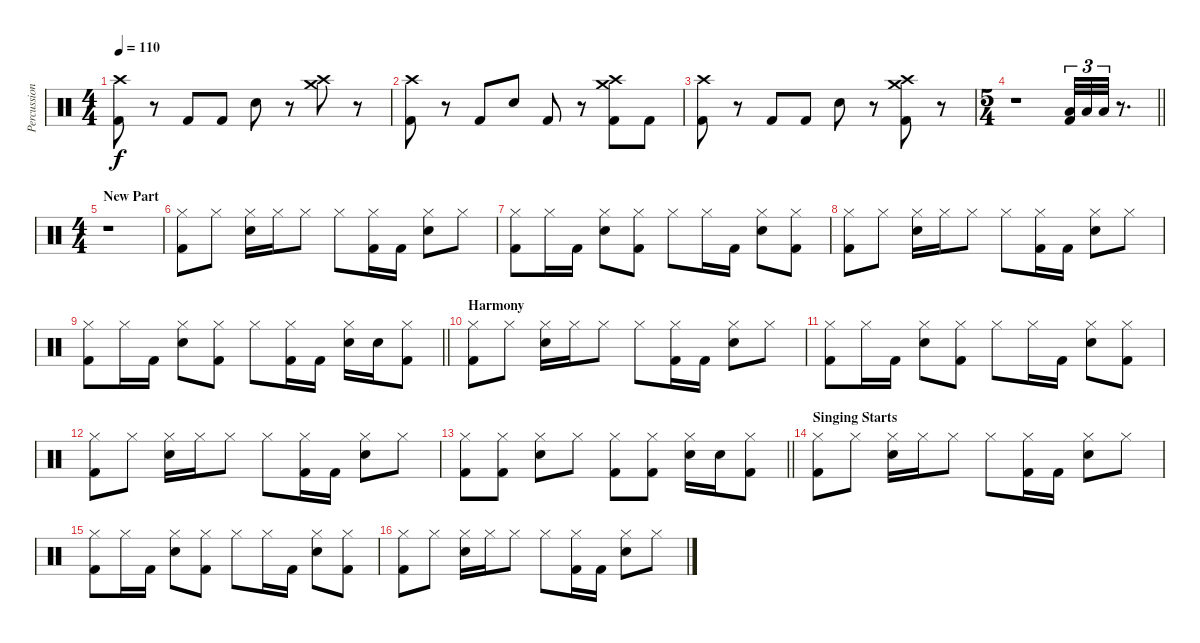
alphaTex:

\track ("Percussion" "Percussion") {instrument percussion}
\staff {score}
\articulation defaults
\ts (4 4)
\tempo 110
\clef neutral
\ks c
("Kick (hit) 2" "Crash high (hit)").8{dy f} r.8 "Kick (hit) 2".8 "Kick (hit) 2".8 "Electric Snare (hit)".8 r.8 ("Crash medium (hit)" "Crash high (hit)").8 r.8 |
("Kick (hit) 2" "Crash high (hit)").8 r.8 "Kick (hit) 2".8 "Electric Snare (hit)".8 "Kick (hit) 2".8 r.8 ("Kick (hit) 2" "Crash medium (hit)" "Crash high (hit)").8 "Kick (hit) 2".8 |
("Kick (hit) 2" "Crash high (hit)").8 r.8 "Kick (hit) 2".8 "Kick (hit) 2".8 "Electric Snare (hit)".8 r.8 ("Kick (hit) 2" "Crash medium (hit)" "Crash high (hit)").8 r.8 |
\ts (5 4)
\barLineRight lightlight
r.1 ("Kick (hit) 2" "Low Floor Tom (hit)").32{tu (3 2)} "Low Floor Tom (hit)".32{tu (3 2)} "Low Floor Tom (hit)".32{tu (3 2)} r.8{d} |
\ts (4 4)
\section ("" "New Part")
r.1 |
("Kick (hit) 2" "Hi-Hat (closed)").8 "Hi-Hat (closed)".8 ("Electric Snare (hit)" "Hi-Hat (closed)").16 "Hi-Hat (closed)".16 "Hi-Hat (closed)".8 "Hi-Hat (closed)".8 ("Kick (hit) 2" "Hi-Hat (closed)").16 "Kick (hit) 2".16 ("Electric Snare (hit)" "Hi-Hat (closed)").8 "Hi-Hat (closed)".8 |
("Kick (hit) 2" "Hi-Hat (closed)").8 "Hi-Hat (closed)".16 "Kick (hit) 2".16 ("Electric Snare (hit)" "Hi-Hat (closed)").8 ("Kick (hit) 2" "Hi-Hat (closed)").8 "Hi-Hat (closed)".8 "Hi-Hat (closed)".16 "Kick (hit) 2".16 ("Electric Snare (hit)" "Hi-Hat (closed)").8 ("Kick (hit) 2" "Hi-Hat (closed)").8 |
("Kick (hit) 2" "Hi-Hat (closed)").8 "Hi-Hat (closed)".8 ("Electric Snare (hit)" "Hi-Hat (closed)").16 "Hi-Hat (closed)".16 "Hi-Hat (closed)".8 "Hi-Hat (closed)".8 ("Kick (hit) 2" "Hi-Hat (closed)").16 "Kick (hit) 2".16 ("Electric Snare (hit)" "Hi-Hat (closed)").8 "Hi-Hat (closed)".8 |
\barLineRight lightlight
("Kick (hit) 2" "Hi-Hat (closed)").8 "Hi-Hat (closed)".16 "Kick (hit) 2".16 ("Electric Snare (hit)" "Hi-Hat (closed)").8 ("Kick (hit) 2" "Hi-Hat (closed)").8 "Hi-Hat (closed)".8 ("Kick (hit) 2" "Hi-Hat (closed)").16 "Kick (hit) 2".16 ("Electric Snare (hit)" "Hi-Hat (closed)").16 "Electric Snare (hit)".16 ("Kick (hit) 2" "Hi-Hat (closed)").8 |
\section ("" "Harmony")
("Kick (hit) 2" "Hi-Hat (closed)").8 "Hi-Hat (closed)".8 ("Electric Snare (hit)" "Hi-Hat (closed)").16 "Hi-Hat (closed)".16 "Hi-Hat (closed)".8 "Hi-Hat (closed)".8 ("Kick (hit) 2" "Hi-Hat (closed)").16 "Kick (hit) 2".16 ("Electric Snare (hit)" "Hi-Hat (closed)").8 "Hi-Hat (closed)".8 |
("Kick (hit) 2" "Hi-Hat (closed)").8 "Hi-Hat (closed)".16 "Kick (hit) 2".16 ("Electric Snare (hit)" "Hi-Hat (closed)").8 ("Kick (hit) 2" "Hi-Hat (closed)").8 "Hi-Hat (closed)".8 "Hi-Hat (closed)".16 "Kick (hit) 2".16 ("Electric Snare (hit)" "Hi-Hat (closed)").8 ("Kick (hit) 2" "Hi-Hat (closed)").8 |
("Kick (hit) 2" "Hi-Hat (closed)").8 "Hi-Hat (closed)".8 ("Electric Snare (hit)" "Hi-Hat (closed)").16 "Hi-Hat (closed)".16 "Hi-Hat (closed)".8 "Hi-Hat (closed)".8 ("Kick (hit) 2" "Hi-Hat (closed)").16 "Kick (hit) 2".16 ("Electric Snare (hit)" "Hi-Hat (closed)").8 "Hi-Hat (closed)".8 |
\barLineRight lightlight
("Kick (hit) 2" "Hi-Hat (closed)").8 ("Kick (hit) 2" "Hi-Hat (closed)").8 ("Electric Snare (hit)" "Hi-Hat (closed)").8 "Hi-Hat (closed)".8 ("Kick (hit) 2" "Hi-Hat (closed)").8 ("Kick (hit) 2" "Hi-Hat (closed)").8 ("Electric Snare (hit)" "Hi-Hat (closed)").16 "Electric Snare (hit)".16 ("Kick (hit) 2" "Hi-Hat (closed)").8 |
\section ("" "Singing Starts")
("Kick (hit) 2" "Hi-Hat (closed)").8 "Hi-Hat (closed)".8 ("Electric Snare (hit)" "Hi-Hat (closed)").16 "Hi-Hat (closed)".16 "Hi-Hat (closed)".8 "Hi-Hat (closed)".8 ("Kick (hit) 2" "Hi-Hat (closed)").16 "Kick (hit) 2".16 ("Electric Snare (hit)" "Hi-Hat (closed)").8 "Hi-Hat (closed)".8 |
("Kick (hit) 2" "Hi-Hat (closed)").8 "Hi-Hat (closed)".16 "Kick (hit) 2".16 ("Electric Snare (hit)" "Hi-Hat (closed)").8 ("Kick (hit) 2" "Hi-Hat (closed)").8 "Hi-Hat (closed)".8 "Hi-Hat (closed)".16 "Kick (hit) 2".16 ("Electric Snare (hit)" "Hi-Hat (closed)").8 ("Kick (hit) 2" "Hi-Hat (closed)").8 |
("Kick (hit) 2" "Hi-Hat (closed)").8 "Hi-Hat (closed)".8 ("Electric Snare (hit)" "Hi-Hat (closed)").16 "Hi-Hat (closed)".16 "Hi-Hat (closed)".8 "Hi-Hat (closed)".8 ("Kick (hit) 2" "Hi-Hat (closed)").16 "Kick (hit) 2".16 ("Electric Snare (hit)" "Hi-Hat (closed)").8 "Hi-Hat (closed)".8
